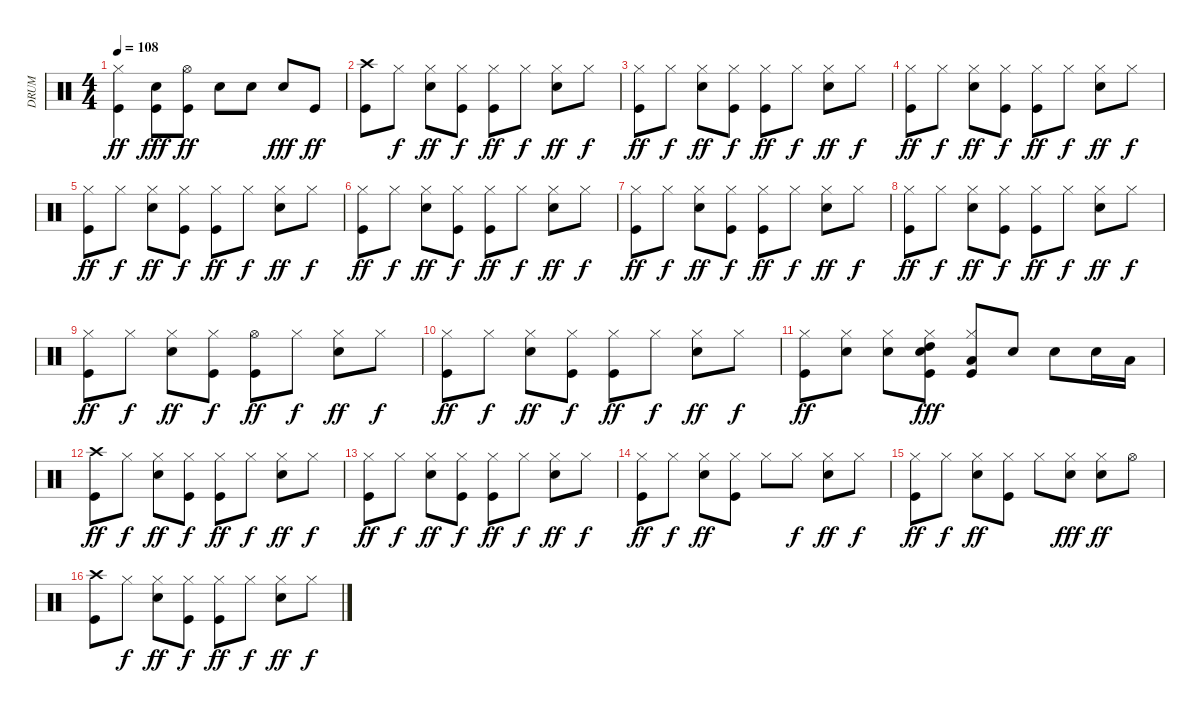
\track ("DRUM" "DRUM") {instrument percussion}
\staff {score}
\articulation defaults
\ts (4 4)
\tempo 108
\clef neutral
\ks c
("Kick (hit)" "Hi-Hat (closed)").4{dy ff} ("Kick (hit)" "Electric Snare (hit)").8{dy fff} ("Kick (hit)" "Hi-Hat (open)").8{dy ff} "Electric Snare (hit)".8 "Electric Snare (hit)".8 "Electric Snare (hit)".8{dy fff} "Kick (hit)".8{dy ff} |
("Kick (hit)" "Crash high (hit)").8 "Hi-Hat (closed)".8{dy f} ("Electric Snare (hit)" "Hi-Hat (closed)").8{dy ff} ("Kick (hit)" "Hi-Hat (closed)").8{dy f} ("Kick (hit)" "Hi-Hat (closed)").8{dy ff} "Hi-Hat (closed)".8{dy f} ("Electric Snare (hit)" "Hi-Hat (closed)").8{dy ff} "Hi-Hat (closed)".8{dy f} |
("Kick (hit)" "Hi-Hat (closed)").8{dy ff} "Hi-Hat (closed)".8{dy f} ("Electric Snare (hit)" "Hi-Hat (closed)").8{dy ff} ("Kick (hit)" "Hi-Hat (closed)").8{dy f} ("Kick (hit)" "Hi-Hat (closed)").8{dy ff} "Hi-Hat (closed)".8{dy f} ("Electric Snare (hit)" "Hi-Hat (closed)").8{dy ff} "Hi-Hat (closed)".8{dy f} |
("Kick (hit)" "Hi-Hat (closed)").8{dy ff} "Hi-Hat (closed)".8{dy f} ("Electric Snare (hit)" "Hi-Hat (closed)").8{dy ff} ("Kick (hit)" "Hi-Hat (closed)").8{dy f} ("Kick (hit)" "Hi-Hat (closed)").8{dy ff} "Hi-Hat (closed)".8{dy f} ("Electric Snare (hit)" "Hi-Hat (closed)").8{dy ff} "Hi-Hat (closed)".8{dy f} |
("Kick (hit)" "Hi-Hat (closed)").8{dy ff} "Hi-Hat (closed)".8{dy f} ("Electric Snare (hit)" "Hi-Hat (closed)").8{dy ff} ("Kick (hit)" "Hi-Hat (closed)").8{dy f} ("Kick (hit)" "Hi-Hat (closed)").8{dy ff} "Hi-Hat (closed)".8{dy f} ("Electric Snare (hit)" "Hi-Hat (closed)").8{dy ff} "Hi-Hat (closed)".8{dy f} |
("Kick (hit)" "Hi-Hat (closed)").8{dy ff} "Hi-Hat (closed)".8{dy f} ("Electric Snare (hit)" "Hi-Hat (closed)").8{dy ff} ("Kick (hit)" "Hi-Hat (closed)").8{dy f} ("Kick (hit)" "Hi-Hat (closed)").8{dy ff} "Hi-Hat (closed)".8{dy f} ("Electric Snare (hit)" "Hi-Hat (closed)").8{dy ff} "Hi-Hat (closed)".8{dy f} |
("Kick (hit)" "Hi-Hat (closed)").8{dy ff} "Hi-Hat (closed)".8{dy f} ("Electric Snare (hit)" "Hi-Hat (closed)").8{dy ff} ("Kick (hit)" "Hi-Hat (closed)").8{dy f} ("Kick (hit)" "Hi-Hat (closed)").8{dy ff} "Hi-Hat (closed)".8{dy f} ("Electric Snare (hit)" "Hi-Hat (closed)").8{dy ff} "Hi-Hat (closed)".8{dy f} |
("Kick (hit)" "Hi-Hat (closed)").8{dy ff} "Hi-Hat (closed)".8{dy f} ("Electric Snare (hit)" "Hi-Hat (closed)").8{dy ff} ("Kick (hit)" "Hi-Hat (closed)").8{dy f} ("Kick (hit)" "Hi-Hat (closed)").8{dy ff} "Hi-Hat (closed)".8{dy f} ("Electric Snare (hit)" "Hi-Hat (closed)").8{dy ff} "Hi-Hat (closed)".8{dy f} |
("Kick (hit)" "Hi-Hat (closed)").8{dy ff} "Hi-Hat (closed)".8{dy f} ("Electric Snare (hit)" "Hi-Hat (closed)").8{dy ff} ("Kick (hit)" "Hi-Hat (closed)").8{dy f} ("Kick (hit)" "Hi-Hat (open)").8{dy ff} "Hi-Hat (closed)".8{dy f} ("Electric Snare (hit)" "Hi-Hat (closed)").8{dy ff} "Hi-Hat (closed)".8{dy f} |
("Kick (hit)" "Hi-Hat (closed)").8{dy ff} "Hi-Hat (closed)".8{dy f} ("Electric Snare (hit)" "Hi-Hat (closed)").8{dy ff} ("Kick (hit)" "Hi-Hat (closed)").8{dy f} ("Kick (hit)" "Hi-Hat (closed)").8{dy ff} "Hi-Hat (closed)".8{dy f} ("Electric Snare (hit)" "Hi-Hat (closed)").8{dy ff} "Hi-Hat (closed)".8{dy f} |
("Kick (hit)" "Hi-Hat (closed)").8{dy ff} ("Electric Snare (hit)" "Hi-Hat (closed)").8 ("Electric Snare (hit)" "Hi-Hat (closed)").8 ("Kick (hit)" "Hi-Hat (closed)" "Electric Snare (hit)" "High Tom (hit)").8{dy fff} ("Kick (hit)" "Hi-Hat (closed)" "Low Tom (hit)").8 "Electric Snare (hit)".8 "Electric Snare (hit)".8 "Electric Snare (hit)".16 "Low Tom (hit)".16 |
("Kick (hit)" "Crash high (hit)").8{dy ff} "Hi-Hat (closed)".8{dy f} ("Electric Snare (hit)" "Hi-Hat (closed)").8{dy ff} ("Kick (hit)" "Hi-Hat (closed)").8{dy f} ("Kick (hit)" "Hi-Hat (closed)").8{dy ff} "Hi-Hat (closed)".8{dy f} ("Electric Snare (hit)" "Hi-Hat (closed)").8{dy ff} "Hi-Hat (closed)".8{dy f} |
("Kick (hit)" "Hi-Hat (closed)").8{dy ff} "Hi-Hat (closed)".8{dy f} ("Electric Snare (hit)" "Hi-Hat (closed)").8{dy ff} ("Kick (hit)" "Hi-Hat (closed)").8{dy f} ("Kick (hit)" "Hi-Hat (closed)").8{dy ff} "Hi-Hat (closed)".8{dy f} ("Electric Snare (hit)" "Hi-Hat (closed)").8{dy ff} "Hi-Hat (closed)".8{dy f} |
("Kick (hit)" "Hi-Hat (closed)").8{dy ff} "Hi-Hat (closed)".8{dy f} ("Electric Snare (hit)" "Hi-Hat (closed)").8{dy ff} ("Kick (hit)" "Hi-Hat (closed)").8 "Hi-Hat (closed)".8 "Hi-Hat (closed)".8{dy f} ("Electric Snare (hit)" "Hi-Hat (closed)").8{dy ff} "Hi-Hat (closed)".8{dy f} |
("Kick (hit)" "Hi-Hat (closed)").8{dy ff} "Hi-Hat (closed)".8{dy f} ("Electric Snare (hit)" "Hi-Hat (closed)").8{dy ff} ("Kick (hit)" "Hi-Hat (closed)").8 "Hi-Hat (closed)".8 ("Electric Snare (hit)" "Hi-Hat (closed)").8{dy fff} ("Electric Snare (hit)" "Hi-Hat (closed)").8{dy ff} "Hi-Hat (open)".8 |
("Kick (hit)" "Crash high (hit)").8 "Hi-Hat (closed)".8{dy f} ("Electric Snare (hit)" "Hi-Hat (closed)").8{dy ff} ("Kick (hit)" "Hi-Hat (closed)").8{dy f} ("Kick (hit)" "Hi-Hat (closed)").8{dy ff} "Hi-Hat (closed)".8{dy f} ("Electric Snare (hit)" "Hi-Hat (closed)").8{dy ff} "Hi-Hat (closed)".8{dy f}
